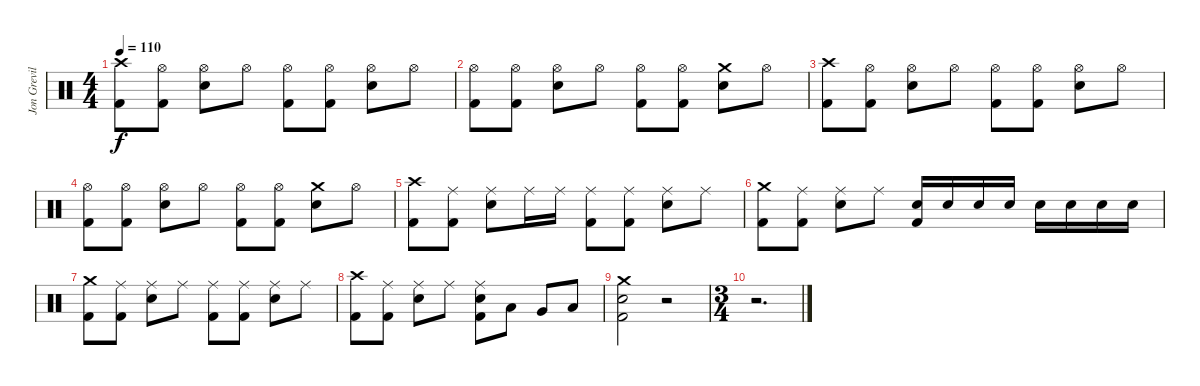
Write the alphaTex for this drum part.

\track ("Jon Greville (Drums)" "Jon Grevil") {instrument percussion}
\staff {score}
\articulation defaults
\ts (4 4)
\tempo 110
\clef neutral
\ks c
("Crash high (hit)" "Kick (hit) 2").8{dy f} ("Hi-Hat (open)" "Kick (hit) 2").8 ("Hi-Hat (open)" "Electric Snare (hit)").8 "Hi-Hat (open)".8 ("Hi-Hat (open)" "Kick (hit) 2").8 ("Hi-Hat (open)" "Kick (hit) 2").8 ("Hi-Hat (open)" "Electric Snare (hit)").8 "Hi-Hat (open)".8 |
("Hi-Hat (open)" "Kick (hit) 2").8 ("Hi-Hat (open)" "Kick (hit) 2").8 ("Hi-Hat (open)" "Electric Snare (hit)").8 "Hi-Hat (open)".8 ("Hi-Hat (open)" "Kick (hit) 2").8 ("Hi-Hat (open)" "Kick (hit) 2").8 ("Crash medium (hit)" "Electric Snare (hit)").8 "Hi-Hat (open)".8 |
("Crash high (hit)" "Kick (hit) 2").8 ("Hi-Hat (open)" "Kick (hit) 2").8 ("Hi-Hat (open)" "Electric Snare (hit)").8 "Hi-Hat (open)".8 ("Hi-Hat (open)" "Kick (hit) 2").8 ("Hi-Hat (open)" "Kick (hit) 2").8 ("Hi-Hat (open)" "Electric Snare (hit)").8 "Hi-Hat (open)".8 |
("Hi-Hat (open)" "Kick (hit) 2").8 ("Hi-Hat (open)" "Kick (hit) 2").8 ("Hi-Hat (open)" "Electric Snare (hit)").8 "Hi-Hat (open)".8 ("Hi-Hat (open)" "Kick (hit) 2").8 ("Hi-Hat (open)" "Kick (hit) 2").8 ("Crash medium (hit)" "Electric Snare (hit)").8 "Hi-Hat (open)".8 |
("Crash high (hit)" "Kick (hit) 2").8 ("Ride (middle)" "Kick (hit) 2").8 ("Ride (middle)" "Electric Snare (hit)").8 "Ride (middle)".16 "Ride (middle)".16 ("Ride (middle)" "Kick (hit) 2").8 ("Ride (middle)" "Kick (hit) 2").8 ("Ride (middle)" "Electric Snare (hit)").8 "Ride (middle)".8 |
("Crash medium (hit)" "Kick (hit) 2").8 ("Ride (middle)" "Kick (hit) 2").8 ("Ride (middle)" "Electric Snare (hit)").8 "Ride (middle)".8 ("Electric Snare (hit)" "Kick (hit) 2").16 "Electric Snare (hit)".16 "Electric Snare (hit)".16 "Electric Snare (hit)".16 "Electric Snare (hit)".16 "Electric Snare (hit)".16 "Electric Snare (hit)".16 "Electric Snare (hit)".16 |
("Crash medium (hit)" "Kick (hit) 2").8 ("Ride (middle)" "Kick (hit) 2").8 ("Ride (middle)" "Electric Snare (hit)").8 "Ride (middle)".8 ("Ride (middle)" "Kick (hit) 2").8 ("Ride (middle)" "Kick (hit) 2").8 ("Ride (middle)" "Electric Snare (hit)").8 "Ride (middle)".8 |
("Crash high (hit)" "Kick (hit) 2").8 ("Ride (middle)" "Kick (hit) 2").8 ("Ride (middle)" "Electric Snare (hit)").8 "Ride (middle)".8 ("Ride (middle)" "Electric Snare (hit)" "Kick (hit) 2").8 "Low Tom (hit)".8 "Very Low Tom (hit)".8 "Low Floor Tom (hit)".8 |
("Crash medium (hit)" "Electric Snare (hit)" "Kick (hit) 2").2 r.2 |
\ts (3 4)
r.2{d}
